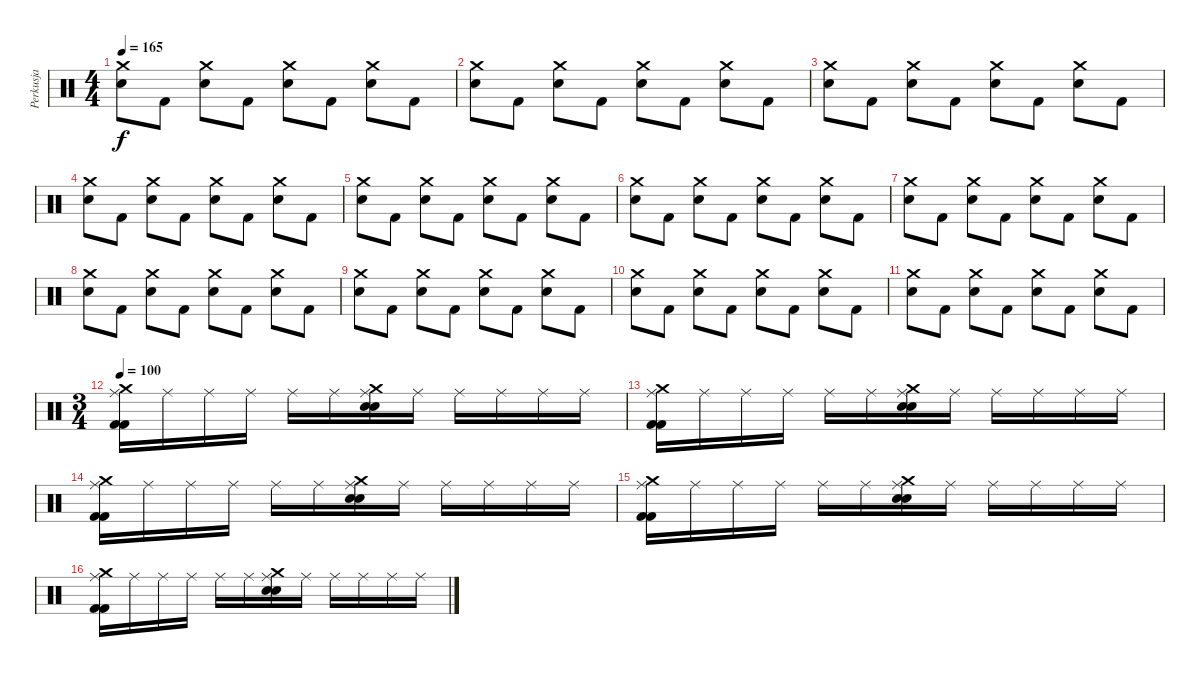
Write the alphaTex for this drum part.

\track ("Perkusja" "Perkusja") {instrument percussion}
\staff {score}
\articulation defaults
\ts (4 4)
\tempo 165
\clef neutral
\ks c
("Crash medium (hit)" "Snare (hit) 2").8{dy f} "Kick (hit) 2".8 ("Crash medium (hit)" "Snare (hit) 2").8 "Kick (hit) 2".8 ("Crash medium (hit)" "Snare (hit) 2").8 "Kick (hit) 2".8 ("Crash medium (hit)" "Snare (hit) 2").8 "Kick (hit) 2".8 |
("Crash medium (hit)" "Snare (hit) 2").8 "Kick (hit) 2".8 ("Crash medium (hit)" "Snare (hit) 2").8 "Kick (hit) 2".8 ("Crash medium (hit)" "Snare (hit) 2").8 "Kick (hit) 2".8 ("Crash medium (hit)" "Snare (hit) 2").8 "Kick (hit) 2".8 |
("Crash medium (hit)" "Snare (hit) 2").8 "Kick (hit) 2".8 ("Crash medium (hit)" "Snare (hit) 2").8 "Kick (hit) 2".8 ("Crash medium (hit)" "Snare (hit) 2").8 "Kick (hit) 2".8 ("Crash medium (hit)" "Snare (hit) 2").8 "Kick (hit) 2".8 |
("Crash medium (hit)" "Snare (hit) 2").8 "Kick (hit) 2".8 ("Crash medium (hit)" "Snare (hit) 2").8 "Kick (hit) 2".8 ("Crash medium (hit)" "Snare (hit) 2").8 "Kick (hit) 2".8 ("Crash medium (hit)" "Snare (hit) 2").8 "Kick (hit) 2".8 |
("Crash medium (hit)" "Snare (hit) 2").8 "Kick (hit) 2".8 ("Crash medium (hit)" "Snare (hit) 2").8 "Kick (hit) 2".8 ("Crash medium (hit)" "Snare (hit) 2").8 "Kick (hit) 2".8 ("Crash medium (hit)" "Snare (hit) 2").8 "Kick (hit) 2".8 |
("Crash medium (hit)" "Snare (hit) 2").8 "Kick (hit) 2".8 ("Crash medium (hit)" "Snare (hit) 2").8 "Kick (hit) 2".8 ("Crash medium (hit)" "Snare (hit) 2").8 "Kick (hit) 2".8 ("Crash medium (hit)" "Snare (hit) 2").8 "Kick (hit) 2".8 |
("Crash medium (hit)" "Snare (hit) 2").8 "Kick (hit) 2".8 ("Crash medium (hit)" "Snare (hit) 2").8 "Kick (hit) 2".8 ("Crash medium (hit)" "Snare (hit) 2").8 "Kick (hit) 2".8 ("Crash medium (hit)" "Snare (hit) 2").8 "Kick (hit) 2".8 |
("Crash medium (hit)" "Snare (hit) 2").8 "Kick (hit) 2".8 ("Crash medium (hit)" "Snare (hit) 2").8 "Kick (hit) 2".8 ("Crash medium (hit)" "Snare (hit) 2").8 "Kick (hit) 2".8 ("Crash medium (hit)" "Snare (hit) 2").8 "Kick (hit) 2".8 |
("Crash medium (hit)" "Snare (hit) 2").8 "Kick (hit) 2".8 ("Crash medium (hit)" "Snare (hit) 2").8 "Kick (hit) 2".8 ("Crash medium (hit)" "Snare (hit) 2").8 "Kick (hit) 2".8 ("Crash medium (hit)" "Snare (hit) 2").8 "Kick (hit) 2".8 |
("Crash medium (hit)" "Snare (hit) 2").8 "Kick (hit) 2".8 ("Crash medium (hit)" "Snare (hit) 2").8 "Kick (hit) 2".8 ("Crash medium (hit)" "Snare (hit) 2").8 "Kick (hit) 2".8 ("Crash medium (hit)" "Snare (hit) 2").8 "Kick (hit) 2".8 |
("Crash medium (hit)" "Snare (hit) 2").8 "Kick (hit) 2".8 ("Crash medium (hit)" "Snare (hit) 2").8 "Kick (hit) 2".8 ("Crash medium (hit)" "Snare (hit) 2").8 "Kick (hit) 2".8 ("Crash medium (hit)" "Snare (hit) 2").8 "Kick (hit) 2".8 |
\ts (3 4)
\tempo 100
("Crash medium (hit)" "Ride (middle)" "Kick (hit) 2" "Kick (hit) 2").16 "Ride (middle)".16 "Ride (middle)".16 "Ride (middle)".16 "Ride (middle)".16 "Ride (middle)".16 ("Crash medium (hit)" "Ride (middle)" "Snare (hit) 2" "Snare (hit) 2").16 "Ride (middle)".16 "Ride (middle)".16 "Ride (middle)".16 "Ride (middle)".16 "Ride (middle)".16 |
("Crash medium (hit)" "Ride (middle)" "Kick (hit) 2" "Kick (hit) 2").16 "Ride (middle)".16 "Ride (middle)".16 "Ride (middle)".16 "Ride (middle)".16 "Ride (middle)".16 ("Crash medium (hit)" "Ride (middle)" "Snare (hit) 2" "Snare (hit) 2").16 "Ride (middle)".16 "Ride (middle)".16 "Ride (middle)".16 "Ride (middle)".16 "Ride (middle)".16 |
("Crash medium (hit)" "Ride (middle)" "Kick (hit) 2" "Kick (hit) 2").16 "Ride (middle)".16 "Ride (middle)".16 "Ride (middle)".16 "Ride (middle)".16 "Ride (middle)".16 ("Crash medium (hit)" "Ride (middle)" "Snare (hit) 2" "Snare (hit) 2").16 "Ride (middle)".16 "Ride (middle)".16 "Ride (middle)".16 "Ride (middle)".16 "Ride (middle)".16 |
("Crash medium (hit)" "Ride (middle)" "Kick (hit) 2" "Kick (hit) 2").16 "Ride (middle)".16 "Ride (middle)".16 "Ride (middle)".16 "Ride (middle)".16 "Ride (middle)".16 ("Crash medium (hit)" "Ride (middle)" "Snare (hit) 2" "Snare (hit) 2").16 "Ride (middle)".16 "Ride (middle)".16 "Ride (middle)".16 "Ride (middle)".16 "Ride (middle)".16 |
("Crash medium (hit)" "Ride (middle)" "Kick (hit) 2" "Kick (hit) 2").16 "Ride (middle)".16 "Ride (middle)".16 "Ride (middle)".16 "Ride (middle)".16 "Ride (middle)".16 ("Crash medium (hit)" "Ride (middle)" "Snare (hit) 2" "Snare (hit) 2").16 "Ride (middle)".16 "Ride (middle)".16 "Ride (middle)".16 "Ride (middle)".16 "Ride (middle)".16
